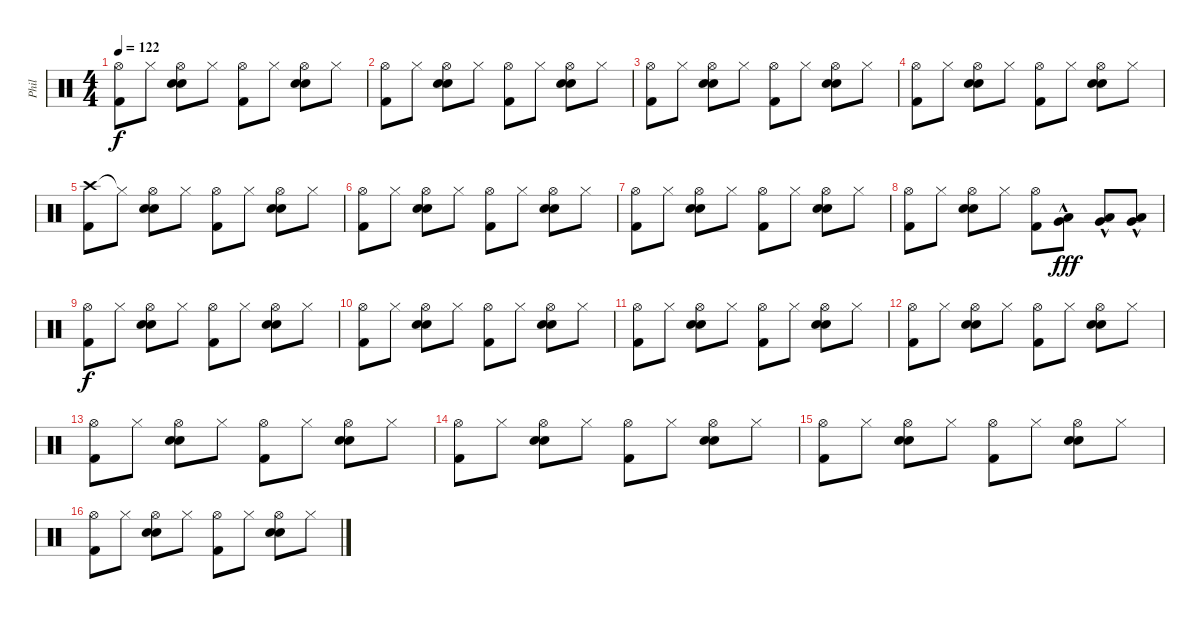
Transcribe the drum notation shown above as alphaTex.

\track ("Phil" "Phil") {instrument percussion}
\staff {score}
\articulation defaults
\ts (4 4)
\tempo 122
\clef neutral
\ks c
("Hi-Hat (open)" "Kick (hit) 2").8{dy f} "Hi-Hat (closed)".8 ("Hi-Hat (open)" "Snare (hit) 2" "Electric Snare (hit)").8 "Hi-Hat (closed)".8 ("Hi-Hat (open)" "Kick (hit) 2").8 "Hi-Hat (closed)".8 ("Hi-Hat (open)" "Snare (hit) 2" "Electric Snare (hit)").8 "Hi-Hat (closed)".8 |
("Hi-Hat (open)" "Kick (hit) 2").8 "Hi-Hat (closed)".8 ("Hi-Hat (open)" "Snare (hit) 2" "Electric Snare (hit)").8 "Hi-Hat (closed)".8 ("Hi-Hat (open)" "Kick (hit) 2").8 "Hi-Hat (closed)".8 ("Hi-Hat (open)" "Snare (hit) 2" "Electric Snare (hit)").8 "Hi-Hat (closed)".8 |
("Hi-Hat (open)" "Kick (hit) 2").8 "Hi-Hat (closed)".8 ("Hi-Hat (open)" "Snare (hit) 2" "Electric Snare (hit)").8 "Hi-Hat (closed)".8 ("Hi-Hat (open)" "Kick (hit) 2").8 "Hi-Hat (closed)".8 ("Hi-Hat (open)" "Snare (hit) 2" "Electric Snare (hit)").8 "Hi-Hat (closed)".8 |
("Hi-Hat (open)" "Kick (hit) 2").8 "Hi-Hat (closed)".8 ("Hi-Hat (open)" "Snare (hit) 2" "Electric Snare (hit)").8 "Hi-Hat (closed)".8 ("Hi-Hat (open)" "Kick (hit) 2").8 "Hi-Hat (closed)".8 ("Hi-Hat (open)" "Snare (hit) 2" "Electric Snare (hit)").8 "Hi-Hat (closed)".8 |
("Crash high (hit)" "Kick (hit) 2").8 "Hi-Hat (closed)"{t}.8 ("Hi-Hat (open)" "Snare (hit) 2" "Electric Snare (hit)").8 "Hi-Hat (closed)".8 ("Hi-Hat (open)" "Kick (hit) 2").8 "Hi-Hat (closed)".8 ("Hi-Hat (open)" "Snare (hit) 2" "Electric Snare (hit)").8 "Hi-Hat (closed)".8 |
("Hi-Hat (open)" "Kick (hit) 2").8 "Hi-Hat (closed)".8 ("Hi-Hat (open)" "Snare (hit) 2" "Electric Snare (hit)").8 "Hi-Hat (closed)".8 ("Hi-Hat (open)" "Kick (hit) 2").8 "Hi-Hat (closed)".8 ("Hi-Hat (open)" "Snare (hit) 2" "Electric Snare (hit)").8 "Hi-Hat (closed)".8 |
("Hi-Hat (open)" "Kick (hit) 2").8 "Hi-Hat (closed)".8 ("Hi-Hat (open)" "Snare (hit) 2" "Electric Snare (hit)").8 "Hi-Hat (closed)".8 ("Hi-Hat (open)" "Kick (hit) 2").8 "Hi-Hat (closed)".8 ("Hi-Hat (open)" "Snare (hit) 2" "Electric Snare (hit)").8 "Hi-Hat (closed)".8 |
("Hi-Hat (open)" "Kick (hit) 2").8 "Hi-Hat (closed)".8 ("Hi-Hat (open)" "Snare (hit) 2" "Electric Snare (hit)").8 "Hi-Hat (closed)".8 ("Hi-Hat (open)" "Kick (hit) 2").8 ("Very Low Tom (hit)"{hac} "Low Floor Tom (hit)"{hac}).8{dy fff balance 8} ("Very Low Tom (hit)"{hac} "Low Floor Tom (hit)"{hac}).8 ("Very Low Tom (hit)"{hac} "Low Floor Tom (hit)"{hac}).8 |
("Hi-Hat (open)" "Kick (hit) 2").8{dy f} "Hi-Hat (closed)".8 ("Hi-Hat (open)" "Snare (hit) 2" "Electric Snare (hit)").8 "Hi-Hat (closed)".8 ("Hi-Hat (open)" "Kick (hit) 2").8 "Hi-Hat (closed)".8 ("Hi-Hat (open)" "Snare (hit) 2" "Electric Snare (hit)").8 "Hi-Hat (closed)".8 |
("Hi-Hat (open)" "Kick (hit) 2").8 "Hi-Hat (closed)".8 ("Hi-Hat (open)" "Snare (hit) 2" "Electric Snare (hit)").8 "Hi-Hat (closed)".8 ("Hi-Hat (open)" "Kick (hit) 2").8 "Hi-Hat (closed)".8 ("Hi-Hat (open)" "Snare (hit) 2" "Electric Snare (hit)").8 "Hi-Hat (closed)".8 |
("Hi-Hat (open)" "Kick (hit) 2").8 "Hi-Hat (closed)".8 ("Hi-Hat (open)" "Snare (hit) 2" "Electric Snare (hit)").8 "Hi-Hat (closed)".8 ("Hi-Hat (open)" "Kick (hit) 2").8 "Hi-Hat (closed)".8 ("Hi-Hat (open)" "Snare (hit) 2" "Electric Snare (hit)").8 "Hi-Hat (closed)".8 |
("Hi-Hat (open)" "Kick (hit) 2").8 "Hi-Hat (closed)".8 ("Hi-Hat (open)" "Snare (hit) 2" "Electric Snare (hit)").8 "Hi-Hat (closed)".8 ("Hi-Hat (open)" "Kick (hit) 2").8 "Hi-Hat (closed)".8 ("Hi-Hat (open)" "Snare (hit) 2" "Electric Snare (hit)").8 "Hi-Hat (closed)".8 |
("Hi-Hat (open)" "Kick (hit) 2").8 "Hi-Hat (closed)".8 ("Hi-Hat (open)" "Snare (hit) 2" "Electric Snare (hit)").8 "Hi-Hat (closed)".8 ("Hi-Hat (open)" "Kick (hit) 2").8 "Hi-Hat (closed)".8 ("Hi-Hat (open)" "Snare (hit) 2" "Electric Snare (hit)").8 "Hi-Hat (closed)".8 |
("Hi-Hat (open)" "Kick (hit) 2").8 "Hi-Hat (closed)".8 ("Hi-Hat (open)" "Snare (hit) 2" "Electric Snare (hit)").8 "Hi-Hat (closed)".8 ("Hi-Hat (open)" "Kick (hit) 2").8 "Hi-Hat (closed)".8 ("Hi-Hat (open)" "Snare (hit) 2" "Electric Snare (hit)").8 "Hi-Hat (closed)".8 |
("Hi-Hat (open)" "Kick (hit) 2").8 "Hi-Hat (closed)".8 ("Hi-Hat (open)" "Snare (hit) 2" "Electric Snare (hit)").8 "Hi-Hat (closed)".8 ("Hi-Hat (open)" "Kick (hit) 2").8 "Hi-Hat (closed)".8 ("Hi-Hat (open)" "Snare (hit) 2" "Electric Snare (hit)").8 "Hi-Hat (closed)".8 |
("Hi-Hat (open)" "Kick (hit) 2").8 "Hi-Hat (closed)".8 ("Hi-Hat (open)" "Snare (hit) 2" "Electric Snare (hit)").8 "Hi-Hat (closed)".8 ("Hi-Hat (open)" "Kick (hit) 2").8 "Hi-Hat (closed)".8 ("Hi-Hat (open)" "Snare (hit) 2" "Electric Snare (hit)").8 "Hi-Hat (closed)".8
